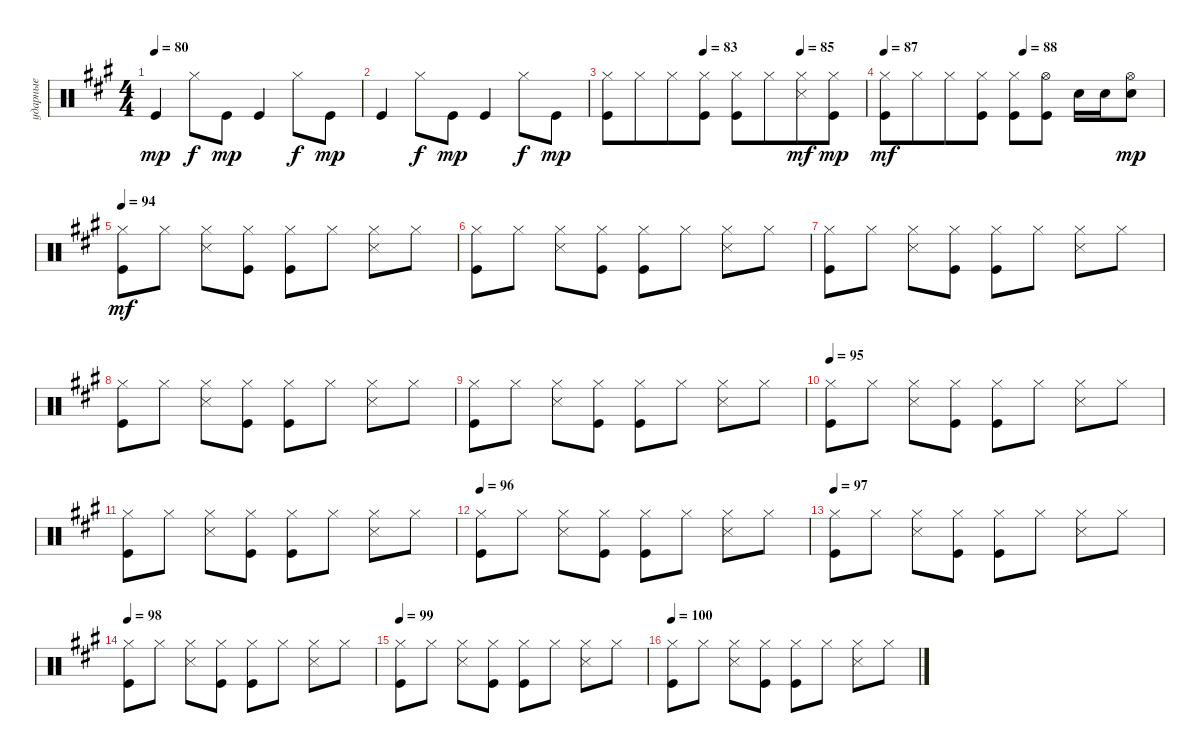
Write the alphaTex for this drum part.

\track ("ударные" "ударные") {instrument percussion}
\staff {score}
\articulation defaults
\ts (4 4)
\tempo 80
\clef neutral
\ks f#minor "Kick (hit)".4{dy mp} "Hi-Hat (closed)".8{dy f} "Kick (hit)".8{dy mp} "Kick (hit)".4 "Hi-Hat (closed)".8{dy f} "Kick (hit)".8{dy mp}
|
"Kick (hit)".4 "Hi-Hat (closed)".8{dy f} "Kick (hit)".8{dy mp} "Kick (hit)".4 "Hi-Hat (closed)".8{dy f} "Kick (hit)".8{dy mp} |
\tempo (83 0.375)
\tempo (85 0.75)
("Hi-Hat (closed)" "Kick (hit)").8 "Hi-Hat (closed)".8{beam merge} "Hi-Hat (closed)".8 ("Hi-Hat (closed)" "Kick (hit)").8 ("Hi-Hat (closed)" "Kick (hit)").8 "Hi-Hat (closed)".8{beam merge} ("Hi-Hat (closed)" "Snare (side stick) 3").8{dy mf} ("Hi-Hat (closed)" "Kick (hit)").8{dy mp} |
\tempo 87
\tempo (88 0.5)
("Hi-Hat (closed)" "Kick (hit)").8{dy mf} "Hi-Hat (closed)".8{beam merge} "Hi-Hat (closed)".8 ("Hi-Hat (closed)" "Kick (hit)").8 ("Kick (hit)" "Hi-Hat (closed)").8 ("Hi-Hat (open)" "Kick (hit)").8 "Snare (hit) 2".16 "Snare (hit) 2".16 ("Snare (hit) 2" "Hi-Hat (open)").8{dy mp} |
\tempo 94
("Hi-Hat (closed)" "Kick (hit)").8{dy mf} "Hi-Hat (closed)".8 ("Hi-Hat (closed)" "Snare (side stick) 3").8 ("Hi-Hat (closed)" "Kick (hit)").8 ("Hi-Hat (closed)" "Kick (hit)").8 "Hi-Hat (closed)".8 ("Hi-Hat (closed)" "Snare (side stick) 3").8 "Hi-Hat (closed)".8 |
("Hi-Hat (closed)" "Kick (hit)").8 "Hi-Hat (closed)".8 ("Hi-Hat (closed)" "Snare (side stick) 3").8 ("Hi-Hat (closed)" "Kick (hit)").8 ("Hi-Hat (closed)" "Kick (hit)").8 "Hi-Hat (closed)".8 ("Hi-Hat (closed)" "Snare (side stick) 3").8 "Hi-Hat (closed)".8 |
("Hi-Hat (closed)" "Kick (hit)").8 "Hi-Hat (closed)".8 ("Hi-Hat (closed)" "Snare (side stick) 3").8 ("Hi-Hat (closed)" "Kick (hit)").8 ("Hi-Hat (closed)" "Kick (hit)").8 "Hi-Hat (closed)".8 ("Hi-Hat (closed)" "Snare (side stick) 3").8 "Hi-Hat (closed)".8 |
("Hi-Hat (closed)" "Kick (hit)").8 "Hi-Hat (closed)".8 ("Hi-Hat (closed)" "Snare (side stick) 3").8 ("Hi-Hat (closed)" "Kick (hit)").8 ("Hi-Hat (closed)" "Kick (hit)").8 "Hi-Hat (closed)".8 ("Hi-Hat (closed)" "Snare (side stick) 3").8 "Hi-Hat (closed)".8 |
("Hi-Hat (closed)" "Kick (hit)").8 "Hi-Hat (closed)".8 ("Hi-Hat (closed)" "Snare (side stick) 3").8 ("Hi-Hat (closed)" "Kick (hit)").8 ("Hi-Hat (closed)" "Kick (hit)").8 "Hi-Hat (closed)".8 ("Hi-Hat (closed)" "Snare (side stick) 3").8 "Hi-Hat (closed)".8 |
\tempo 95
("Hi-Hat (closed)" "Kick (hit)").8 "Hi-Hat (closed)".8 ("Hi-Hat (closed)" "Snare (side stick) 3").8 ("Hi-Hat (closed)" "Kick (hit)").8 ("Hi-Hat (closed)" "Kick (hit)").8 "Hi-Hat (closed)".8 ("Hi-Hat (closed)" "Snare (side stick) 3").8 "Hi-Hat (closed)".8 |
("Hi-Hat (closed)" "Kick (hit)").8 "Hi-Hat (closed)".8 ("Hi-Hat (closed)" "Snare (side stick) 3").8 ("Hi-Hat (closed)" "Kick (hit)").8 ("Hi-Hat (closed)" "Kick (hit)").8 "Hi-Hat (closed)".8 ("Hi-Hat (closed)" "Snare (side stick) 3").8 "Hi-Hat (closed)".8 |
\tempo 96
("Hi-Hat (closed)" "Kick (hit)").8 "Hi-Hat (closed)".8 ("Hi-Hat (closed)" "Snare (side stick) 3").8 ("Hi-Hat (closed)" "Kick (hit)").8 ("Hi-Hat (closed)" "Kick (hit)").8 "Hi-Hat (closed)".8 ("Hi-Hat (closed)" "Snare (side stick) 3").8 "Hi-Hat (closed)".8 |
\tempo 97
("Hi-Hat (closed)" "Kick (hit)").8 "Hi-Hat (closed)".8 ("Hi-Hat (closed)" "Snare (side stick) 3").8 ("Hi-Hat (closed)" "Kick (hit)").8 ("Hi-Hat (closed)" "Kick (hit)").8 "Hi-Hat (closed)".8 ("Hi-Hat (closed)" "Snare (side stick) 3").8 "Hi-Hat (closed)".8 |
\tempo 98
("Hi-Hat (closed)" "Kick (hit)").8 "Hi-Hat (closed)".8 ("Hi-Hat (closed)" "Snare (side stick) 3").8 ("Hi-Hat (closed)" "Kick (hit)").8 ("Hi-Hat (closed)" "Kick (hit)").8 "Hi-Hat (closed)".8 ("Hi-Hat (closed)" "Snare (side stick) 3").8 "Hi-Hat (closed)".8 |
\tempo 99
("Hi-Hat (closed)" "Kick (hit)").8 "Hi-Hat (closed)".8 ("Hi-Hat (closed)" "Snare (side stick) 3").8 ("Hi-Hat (closed)" "Kick (hit)").8 ("Hi-Hat (closed)" "Kick (hit)").8 "Hi-Hat (closed)".8 ("Hi-Hat (closed)" "Snare (side stick) 3").8 "Hi-Hat (closed)".8 |
\tempo 100
("Hi-Hat (closed)" "Kick (hit)").8 "Hi-Hat (closed)".8 ("Hi-Hat (closed)" "Snare (side stick) 3").8 ("Hi-Hat (closed)" "Kick (hit)").8 ("Hi-Hat (closed)" "Kick (hit)").8 "Hi-Hat (closed)".8 ("Hi-Hat (closed)" "Snare (side stick) 3").8 "Hi-Hat (closed)".8
